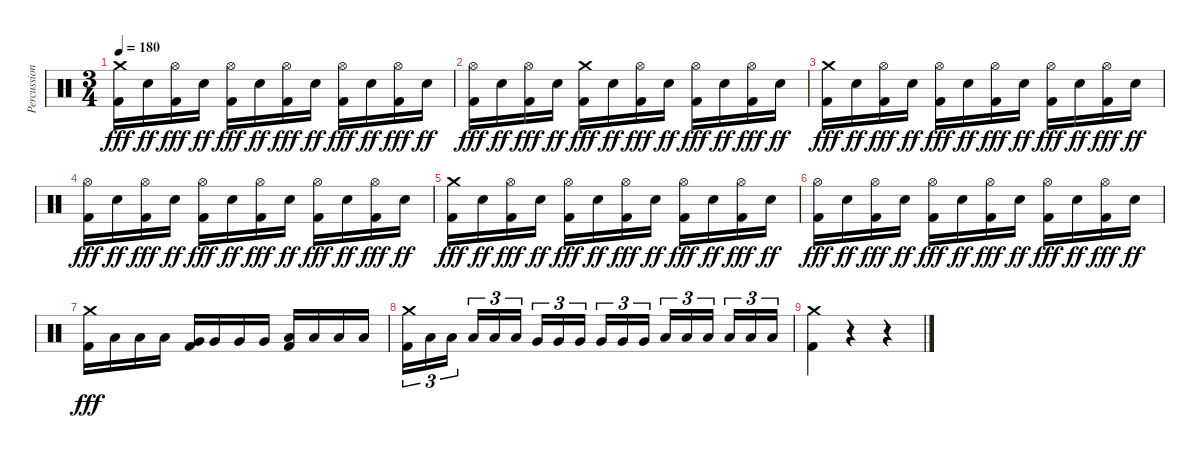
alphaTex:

\track ("Percussion" "Percussion") {instrument percussion}
\staff {score}
\articulation defaults
\ts (3 4)
\tempo 180
\clef neutral
\ks c
("Crash medium (hit)" "Kick (hit) 2").16{dy fff} "Electric Snare (hit)".16{dy ff} ("Hi-Hat (open)" "Kick (hit) 2").16{dy fff} "Electric Snare (hit)".16{dy ff} ("Hi-Hat (open)" "Kick (hit) 2").16{dy fff} "Electric Snare (hit)".16{dy ff} ("Hi-Hat (open)" "Kick (hit) 2").16{dy fff} "Electric Snare (hit)".16{dy ff} ("Hi-Hat (open)" "Kick (hit) 2").16{dy fff} "Electric Snare (hit)".16{dy ff} ("Hi-Hat (open)" "Kick (hit) 2").16{dy fff} "Electric Snare (hit)".16{dy ff} |
("Hi-Hat (open)" "Kick (hit) 2").16{dy fff} "Electric Snare (hit)".16{dy ff} ("Hi-Hat (open)" "Kick (hit) 2").16{dy fff} "Electric Snare (hit)".16{dy ff} ("Crash medium (hit)" "Kick (hit) 2").16{dy fff} "Electric Snare (hit)".16{dy ff} ("Hi-Hat (open)" "Kick (hit) 2").16{dy fff} "Electric Snare (hit)".16{dy ff} ("Hi-Hat (open)" "Kick (hit) 2").16{dy fff} "Electric Snare (hit)".16{dy ff} ("Hi-Hat (open)" "Kick (hit) 2").16{dy fff} "Electric Snare (hit)".16{dy ff} |
("Crash medium (hit)" "Kick (hit) 2").16{dy fff} "Electric Snare (hit)".16{dy ff} ("Hi-Hat (open)" "Kick (hit) 2").16{dy fff} "Electric Snare (hit)".16{dy ff} ("Hi-Hat (open)" "Kick (hit) 2").16{dy fff} "Electric Snare (hit)".16{dy ff} ("Hi-Hat (open)" "Kick (hit) 2").16{dy fff} "Electric Snare (hit)".16{dy ff} ("Hi-Hat (open)" "Kick (hit) 2").16{dy fff} "Electric Snare (hit)".16{dy ff} ("Hi-Hat (open)" "Kick (hit) 2").16{dy fff} "Electric Snare (hit)".16{dy ff} |
("Hi-Hat (open)" "Kick (hit) 2").16{dy fff} "Electric Snare (hit)".16{dy ff} ("Hi-Hat (open)" "Kick (hit) 2").16{dy fff} "Electric Snare (hit)".16{dy ff} ("Hi-Hat (open)" "Kick (hit) 2").16{dy fff} "Electric Snare (hit)".16{dy ff} ("Hi-Hat (open)" "Kick (hit) 2").16{dy fff} "Electric Snare (hit)".16{dy ff} ("Hi-Hat (open)" "Kick (hit) 2").16{dy fff} "Electric Snare (hit)".16{dy ff} ("Hi-Hat (open)" "Kick (hit) 2").16{dy fff} "Electric Snare (hit)".16{dy ff} |
("Crash medium (hit)" "Kick (hit) 2").16{dy fff} "Electric Snare (hit)".16{dy ff} ("Hi-Hat (open)" "Kick (hit) 2").16{dy fff} "Electric Snare (hit)".16{dy ff} ("Hi-Hat (open)" "Kick (hit) 2").16{dy fff} "Electric Snare (hit)".16{dy ff} ("Hi-Hat (open)" "Kick (hit) 2").16{dy fff} "Electric Snare (hit)".16{dy ff} ("Hi-Hat (open)" "Kick (hit) 2").16{dy fff} "Electric Snare (hit)".16{dy ff} ("Hi-Hat (open)" "Kick (hit) 2").16{dy fff} "Electric Snare (hit)".16{dy ff} |
("Hi-Hat (open)" "Kick (hit) 2").16{dy fff} "Electric Snare (hit)".16{dy ff} ("Hi-Hat (open)" "Kick (hit) 2").16{dy fff} "Electric Snare (hit)".16{dy ff} ("Hi-Hat (open)" "Kick (hit) 2").16{dy fff} "Electric Snare (hit)".16{dy ff} ("Hi-Hat (open)" "Kick (hit) 2").16{dy fff} "Electric Snare (hit)".16{dy ff} ("Hi-Hat (open)" "Kick (hit) 2").16{dy fff} "Electric Snare (hit)".16{dy ff} ("Hi-Hat (open)" "Kick (hit) 2").16{dy fff} "Electric Snare (hit)".16{dy ff} |
("Crash medium (hit)" "Kick (hit) 2").16{dy fff} "Low Tom (hit)".16 "Low Tom (hit)".16 "Low Tom (hit)".16 ("Very Low Tom (hit)" "Kick (hit) 2").16 "Very Low Tom (hit)".16 "Very Low Tom (hit)".16 "Very Low Tom (hit)".16 ("Low Floor Tom (hit)" "Kick (hit) 2").16 "Low Floor Tom (hit)".16 "Low Floor Tom (hit)".16 "Low Floor Tom (hit)".16 |
("Crash medium (hit)" "Kick (hit) 2").16{tu (3 2)} "Low Tom (hit)".16{tu (3 2)} "Low Tom (hit)".16{tu (3 2) beam splitsecondary} "Low Tom (hit)".16{tu (3 2)} "Low Tom (hit)".16{tu (3 2)} "Low Tom (hit)".16{tu (3 2)} "Very Low Tom (hit)".16{tu (3 2)} "Very Low Tom (hit)".16{tu (3 2)} "Very Low Tom (hit)".16{tu (3 2) beam splitsecondary} "Very Low Tom (hit)".16{tu (3 2)} "Very Low Tom (hit)".16{tu (3 2)} "Very Low Tom (hit)".16{tu (3 2)} "Low Floor Tom (hit)".16{tu (3 2)} "Low Floor Tom (hit)".16{tu (3 2)} "Low Floor Tom (hit)".16{tu (3 2) beam splitsecondary} "Low Floor Tom (hit)".16{tu (3 2)} "Low Floor Tom (hit)".16{tu (3 2)} "Low Floor Tom (hit)".16{tu (3 2)} |
("Crash medium (hit)" "Kick (hit) 2").4 r.4 r.4
